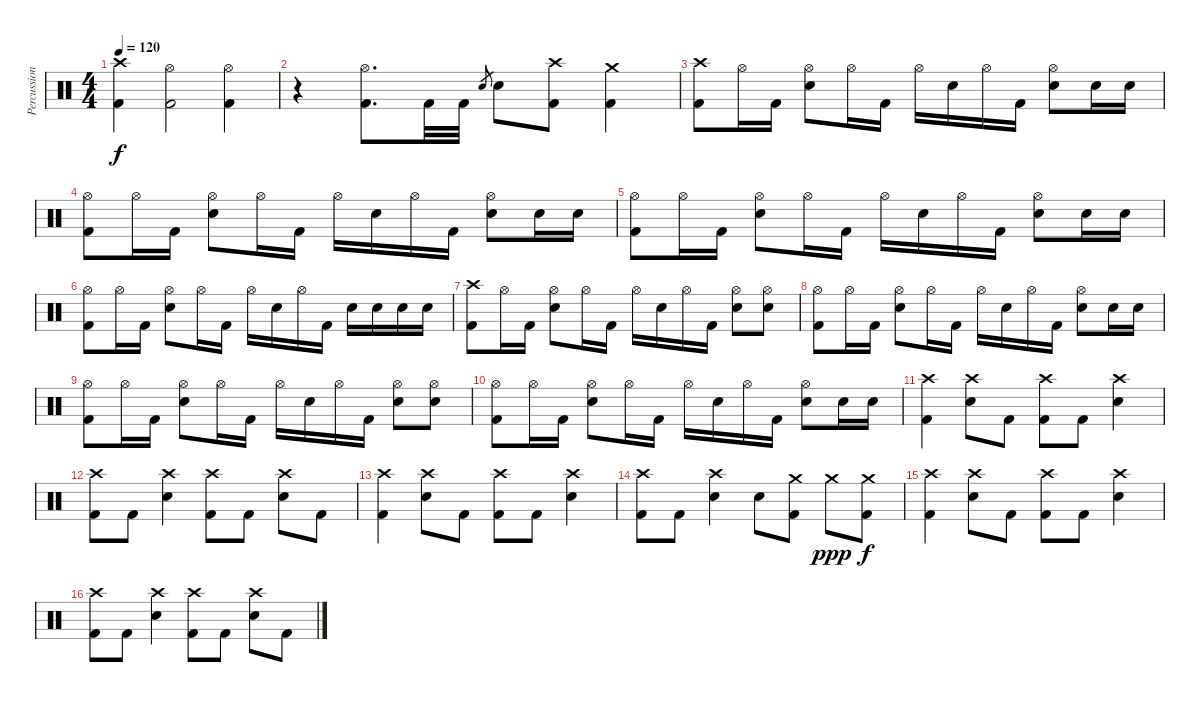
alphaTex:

\track ("Percussion" "Percussion") {instrument percussion}
\staff {score}
\articulation defaults
\ts (4 4)
\tempo 120
\clef neutral
\ks c
("Crash high (hit)" "Kick (hit) 2").4{dy f} ("Hi-Hat (open)" "Kick (hit) 2").2 ("Hi-Hat (open)" "Kick (hit) 2").4 |
r.4 ("Hi-Hat (open)" "Kick (hit) 2").8{d} "Kick (hit) 2".32 "Kick (hit) 2".32 "Electric Snare (hit)".8{gr} "Electric Snare (hit)".8 ("Crash high (hit)" "Kick (hit) 2").8 ("Crash medium (hit)" "Kick (hit) 2").4 |
("Crash high (hit)" "Kick (hit) 2").8 "Hi-Hat (open)".16 "Kick (hit) 2".16 ("Hi-Hat (open)" "Electric Snare (hit)").8 "Hi-Hat (open)".16 "Kick (hit) 2".16 "Hi-Hat (open)".16 "Electric Snare (hit)".16 "Hi-Hat (open)".16 "Kick (hit) 2".16 ("Hi-Hat (open)" "Electric Snare (hit)").8 "Electric Snare (hit)".16 "Electric Snare (hit)".16 |
("Hi-Hat (open)" "Kick (hit) 2").8 "Hi-Hat (open)".16 "Kick (hit) 2".16 ("Hi-Hat (open)" "Electric Snare (hit)").8 "Hi-Hat (open)".16 "Kick (hit) 2".16 "Hi-Hat (open)".16 "Electric Snare (hit)".16 "Hi-Hat (open)".16 "Kick (hit) 2".16 ("Hi-Hat (open)" "Electric Snare (hit)").8 "Electric Snare (hit)".16 "Electric Snare (hit)".16 |
("Hi-Hat (open)" "Kick (hit) 2").8 "Hi-Hat (open)".16 "Kick (hit) 2".16 ("Hi-Hat (open)" "Electric Snare (hit)").8 "Hi-Hat (open)".16 "Kick (hit) 2".16 "Hi-Hat (open)".16 "Electric Snare (hit)".16 "Hi-Hat (open)".16 "Kick (hit) 2".16 ("Hi-Hat (open)" "Electric Snare (hit)").8 "Electric Snare (hit)".16 "Electric Snare (hit)".16 |
("Hi-Hat (open)" "Kick (hit) 2").8 "Hi-Hat (open)".16 "Kick (hit) 2".16 ("Hi-Hat (open)" "Electric Snare (hit)").8 "Hi-Hat (open)".16 "Kick (hit) 2".16 "Hi-Hat (open)".16 "Electric Snare (hit)".16 "Hi-Hat (open)".16 "Kick (hit) 2".16 "Electric Snare (hit)".16 "Electric Snare (hit)".16 "Electric Snare (hit)".16 "Electric Snare (hit)".16 |
("Crash high (hit)" "Kick (hit) 2").8 "Hi-Hat (open)".16 "Kick (hit) 2".16 ("Hi-Hat (open)" "Electric Snare (hit)").8 "Hi-Hat (open)".16 "Kick (hit) 2".16 "Hi-Hat (open)".16 "Electric Snare (hit)".16 "Hi-Hat (open)".16 "Kick (hit) 2".16 ("Hi-Hat (open)" "Electric Snare (hit)").8 ("Hi-Hat (open)" "Electric Snare (hit)").8 |
("Hi-Hat (open)" "Kick (hit) 2").8 "Hi-Hat (open)".16 "Kick (hit) 2".16 ("Hi-Hat (open)" "Electric Snare (hit)").8 "Hi-Hat (open)".16 "Kick (hit) 2".16 "Hi-Hat (open)".16 "Electric Snare (hit)".16 "Hi-Hat (open)".16 "Kick (hit) 2".16 ("Hi-Hat (open)" "Electric Snare (hit)").8 "Electric Snare (hit)".16 "Electric Snare (hit)".16 |
("Hi-Hat (open)" "Kick (hit) 2").8 "Hi-Hat (open)".16 "Kick (hit) 2".16 ("Hi-Hat (open)" "Electric Snare (hit)").8 "Hi-Hat (open)".16 "Kick (hit) 2".16 "Hi-Hat (open)".16 "Electric Snare (hit)".16 "Hi-Hat (open)".16 "Kick (hit) 2".16 ("Hi-Hat (open)" "Electric Snare (hit)").8 ("Hi-Hat (open)" "Electric Snare (hit)").8 |
("Hi-Hat (open)" "Kick (hit) 2").8 "Hi-Hat (open)".16 "Kick (hit) 2".16 ("Hi-Hat (open)" "Electric Snare (hit)").8 "Hi-Hat (open)".16 "Kick (hit) 2".16 "Hi-Hat (open)".16 "Electric Snare (hit)".16 "Hi-Hat (open)".16 "Kick (hit) 2".16 ("Hi-Hat (open)" "Electric Snare (hit)").8 "Electric Snare (hit)".16 "Electric Snare (hit)".16 |
("Crash high (hit)" "Kick (hit) 2").4 ("Crash high (hit)" "Electric Snare (hit)").8 "Kick (hit) 2".8 ("Crash high (hit)" "Kick (hit) 2").8 "Kick (hit) 2".8 ("Crash high (hit)" "Electric Snare (hit)").4 |
("Crash high (hit)" "Kick (hit) 2").8 "Kick (hit) 2".8 ("Crash high (hit)" "Electric Snare (hit)").4 ("Crash high (hit)" "Kick (hit) 2").8 "Kick (hit) 2".8 ("Crash high (hit)" "Electric Snare (hit)").8 "Kick (hit) 2".8 |
("Crash high (hit)" "Kick (hit) 2").4 ("Crash high (hit)" "Electric Snare (hit)").8 "Kick (hit) 2".8 ("Crash high (hit)" "Kick (hit) 2").8 "Kick (hit) 2".8 ("Crash high (hit)" "Electric Snare (hit)").4 |
("Crash high (hit)" "Kick (hit) 2").8 "Kick (hit) 2".8 ("Crash high (hit)" "Electric Snare (hit)").4 "Electric Snare (hit)".8 ("Crash medium (hit)" "Kick (hit) 2").8 "Crash medium (hit)".8{dy ppp} ("Crash medium (hit)" "Kick (hit) 2").8{dy f} |
("Crash high (hit)" "Kick (hit) 2").4 ("Crash high (hit)" "Electric Snare (hit)").8 "Kick (hit) 2".8 ("Crash high (hit)" "Kick (hit) 2").8 "Kick (hit) 2".8 ("Crash high (hit)" "Electric Snare (hit)").4 |
("Crash high (hit)" "Kick (hit) 2").8 "Kick (hit) 2".8 ("Crash high (hit)" "Electric Snare (hit)").4 ("Crash high (hit)" "Kick (hit) 2").8 "Kick (hit) 2".8 ("Crash high (hit)" "Electric Snare (hit)").8 "Kick (hit) 2".8
